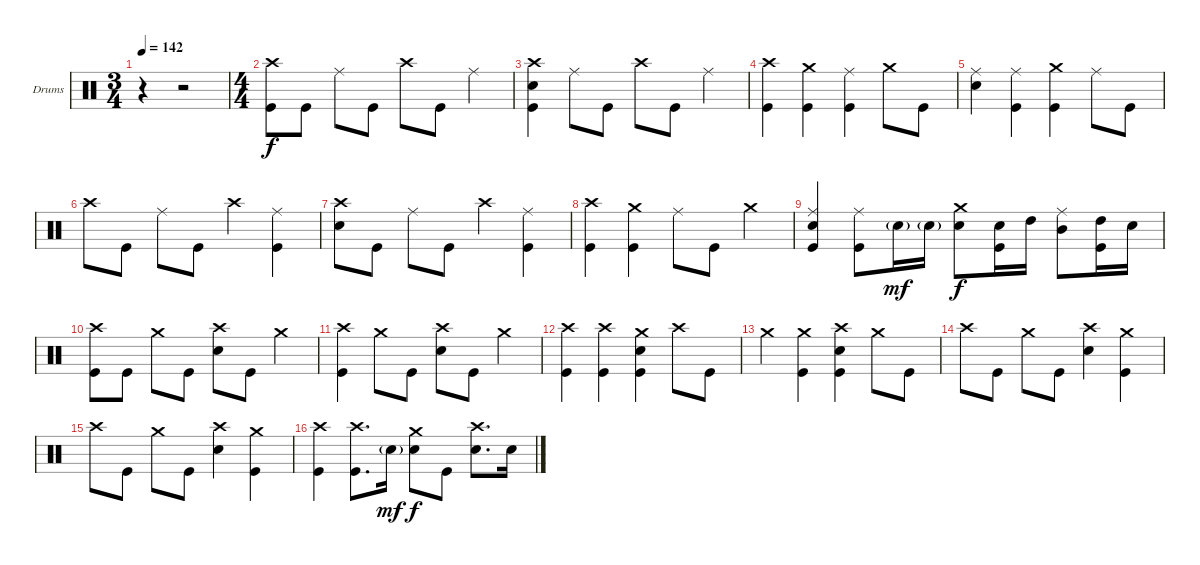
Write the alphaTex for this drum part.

\bracketExtendMode groupsimilarinstruments
\firstSystemTrackNameOrientation horizontal
\otherSystemsTrackNameOrientation horizontal
\track ("Drumkit" "Drums") {instrument percussion}
\staff {score}
\articulation defaults
\ts (3 4)
\beaming (8 2 2 2)
\tempo 142
\clef neutral
\ks c
r.4{dy f} r.2 |
\ts (4 4)
\beaming (8 2 2 2 2)
("Crash high (hit)" "Kick (hit)").8 "Kick (hit)".8 "Ride (middle)".8 "Kick (hit)".8 "Crash high (hit)".8 "Kick (hit)".8 "Ride (middle)".4 |
("Crash high (hit)" "Snare (hit) 2" "Kick (hit)").4 "Ride (middle)".8 "Kick (hit)".8 "Crash high (hit)".8 "Kick (hit)".8 "Ride (middle)".4 |
("Crash high (hit)" "Kick (hit)").4 ("Crash medium (hit)" "Kick (hit)").4 ("Ride (middle)" "Kick (hit)").4 "Crash medium (hit)".8 "Kick (hit)".8 |
("Ride (middle)" "Snare (hit) 2").4 ("Ride (middle)" "Kick (hit)").4 ("Crash medium (hit)" "Kick (hit)").4 "Ride (middle)".8 "Kick (hit)".8 |
"Crash high (hit)".8 "Kick (hit)".8 "Ride (middle)".8 "Kick (hit)".8 "Crash high (hit)".4 ("Ride (middle)" "Kick (hit)").4 |
("Crash high (hit)" "Snare (hit) 2").8 "Kick (hit)".8 "Ride (middle)".8 "Kick (hit)".8 "Crash high (hit)".4 ("Ride (middle)" "Kick (hit)").4 |
("Crash high (hit)" "Kick (hit)").4 ("Crash medium (hit)" "Kick (hit)").4 "Ride (middle)".8 "Kick (hit)".8 "Crash medium (hit)".4 |
("Ride (middle)" "Snare (hit) 2" "Kick (hit)").4 ("Ride (middle)" "Kick (hit)").8 "Snare (hit) 2"{g}.16{dy mf} "Snare (hit) 2"{g}.16 ("Crash medium (hit)" "Snare (hit) 2").8{dy f} ("Snare (hit) 2" "Kick (hit)").16 "High Tom (hit)".16 ("Ride (middle)" "Mid Tom (hit)").8 ("High Tom (hit)" "Kick (hit)").16 "Snare (hit) 2".16 |
("Crash high (hit)" "Kick (hit)").8 "Kick (hit)".8 "Crash medium (hit)".8 "Kick (hit)".8 ("Crash high (hit)" "Snare (hit) 2").8 "Kick (hit)".8 "Crash medium (hit)".4 |
("Crash high (hit)" "Kick (hit)").4 "Crash medium (hit)".8 "Kick (hit)".8 ("Crash high (hit)" "Snare (hit) 2").8 "Kick (hit)".8 "Crash medium (hit)".4 |
("Crash high (hit)" "Kick (hit)").4 ("Crash high (hit)" "Kick (hit)").4 ("Crash medium (hit)" "Snare (hit) 2" "Kick (hit)").4 "Crash high (hit)".8 "Kick (hit)".8 |
"Crash medium (hit)".4 ("Crash medium (hit)" "Kick (hit)").4 ("Crash high (hit)" "Snare (hit) 2" "Kick (hit)").4 "Crash medium (hit)".8 "Kick (hit)".8 |
"Crash high (hit)".8 "Kick (hit)".8 "Crash medium (hit)".8 "Kick (hit)".8 ("Crash high (hit)" "Snare (hit) 2").4 ("Crash medium (hit)" "Kick (hit)").4 |
"Crash high (hit)".8 "Kick (hit)".8 "Crash medium (hit)".8 "Kick (hit)".8 ("Crash high (hit)" "Snare (hit) 2").4 ("Crash medium (hit)" "Kick (hit)").4 |
("Crash high (hit)" "Kick (hit)").4 ("Crash high (hit)" "Kick (hit)").8{d} "Snare (hit) 2"{g}.16{dy mf} ("Crash medium (hit)" "Snare (hit) 2").8{dy f} "Kick (hit)".8 ("Crash high (hit)" "Snare (hit) 2").8{d} "Snare (hit) 2".16
